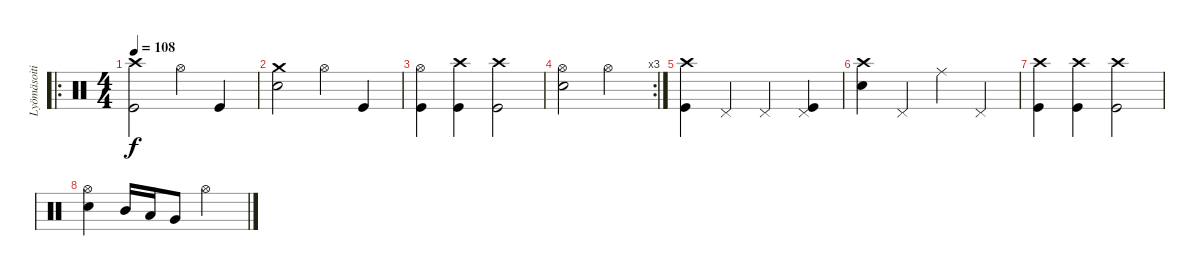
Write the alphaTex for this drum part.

\track ("Lyömäsoitin" "Lyömäsoiti") {instrument percussion}
\staff {score}
\articulation defaults
\ro
\ts (4 4)
\tempo 108
\clef neutral
\ks c
("Crash high (hit)" "Kick (hit)").2{dy f} "Hi-Hat (open)".4 "Kick (hit)".4 |
("Crash medium (hit)" "Electric Snare (hit)").2 "Hi-Hat (open)".4 "Kick (hit)".4 |
("Hi-Hat (open)" "Kick (hit)").4 ("Crash high (hit)" "Kick (hit)").4 ("Crash high (hit)" "Kick (hit)").2 |
\rc 3
("Hi-Hat (open)" "Electric Snare (hit)").2 "Hi-Hat (open)".2 |
("Crash high (hit)" "Kick (hit)").4 "Pedal Hi-Hat (hit)".4 "Pedal Hi-Hat (hit)".4 ("Pedal Hi-Hat (hit)" "Kick (hit)").4 |
("Crash high (hit)" "Electric Snare (hit)").4 "Pedal Hi-Hat (hit)".4 "Ride (middle)".4 "Pedal Hi-Hat (hit)".4 |
("Crash high (hit)" "Kick (hit)").4 ("Crash high (hit)" "Kick (hit)").4 ("Crash high (hit)" "Kick (hit)").2 |
("Electric Snare (hit)" "Hi-Hat (open)").4 "Mid Tom (hit)".16 "Low Tom (hit)".16 "Very Low Tom (hit)".8 "Hi-Hat (open)".2
